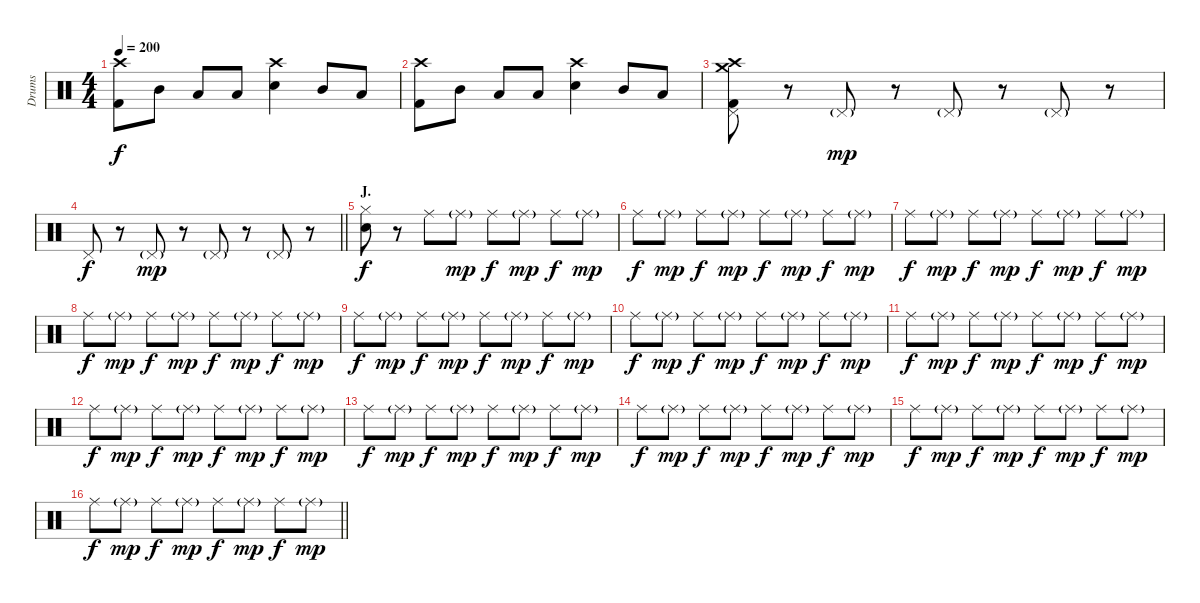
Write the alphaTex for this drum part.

\track ("Drums" "Drums") {instrument percussion}
\staff {score}
\articulation defaults
\ts (4 4)
\tempo 200
\clef neutral
\ks c
("Crash high (hit)" "Kick (hit) 2").8{dy f} "Mid Tom (hit)".8 "Low Tom (hit)".8 "Low Floor Tom (hit)".8 ("Crash high (hit)" "Electric Snare (hit)").4 "Mid Tom (hit)".8 "Low Tom (hit)".8 |
("Crash high (hit)" "Kick (hit) 2").8 "Mid Tom (hit)".8 "Low Tom (hit)".8 "Low Floor Tom (hit)".8 ("Crash high (hit)" "Electric Snare (hit)").4 "Mid Tom (hit)".8 "Low Tom (hit)".8 |
("Crash medium (hit)" "Crash high (hit)" "Pedal Hi-Hat (hit)" "Kick (hit) 2").8 r.8 "Pedal Hi-Hat (hit)"{g}.8{dy mp} r.8 "Pedal Hi-Hat (hit)"{g}.8 r.8 "Pedal Hi-Hat (hit)"{g}.8 r.8 |
\barLineRight lightlight "Pedal Hi-Hat (hit)".8{dy f}
r.8 "Pedal Hi-Hat (hit)"{g}.8{dy mp} r.8 "Pedal Hi-Hat (hit)"{g}.8 r.8 "Pedal Hi-Hat (hit)"{g}.8 r.8 |
\section ("" "J.")
("Hi-Hat (closed)" "Electric Snare (hit)").8{dy f} r.8 "Ride (middle)".8 "Ride (middle)"{g}.8{dy mp} "Ride (middle)".8{dy f} "Ride (middle)"{g}.8{dy mp} "Ride (middle)".8{dy f} "Ride (middle)"{g}.8{dy mp} |
"Ride (middle)".8{dy f} "Ride (middle)"{g}.8{dy mp} "Ride (middle)".8{dy f} "Ride (middle)"{g}.8{dy mp} "Ride (middle)".8{dy f} "Ride (middle)"{g}.8{dy mp} "Ride (middle)".8{dy f} "Ride (middle)"{g}.8{dy mp} |
"Ride (middle)".8{dy f} "Ride (middle)"{g}.8{dy mp} "Ride (middle)".8{dy f} "Ride (middle)"{g}.8{dy mp} "Ride (middle)".8{dy f} "Ride (middle)"{g}.8{dy mp} "Ride (middle)".8{dy f} "Ride (middle)"{g}.8{dy mp} |
"Ride (middle)".8{dy f} "Ride (middle)"{g}.8{dy mp} "Ride (middle)".8{dy f} "Ride (middle)"{g}.8{dy mp} "Ride (middle)".8{dy f} "Ride (middle)"{g}.8{dy mp} "Ride (middle)".8{dy f} "Ride (middle)"{g}.8{dy mp} |
"Ride (middle)".8{dy f} "Ride (middle)"{g}.8{dy mp} "Ride (middle)".8{dy f} "Ride (middle)"{g}.8{dy mp} "Ride (middle)".8{dy f} "Ride (middle)"{g}.8{dy mp} "Ride (middle)".8{dy f} "Ride (middle)"{g}.8{dy mp} |
"Ride (middle)".8{dy f} "Ride (middle)"{g}.8{dy mp} "Ride (middle)".8{dy f} "Ride (middle)"{g}.8{dy mp} "Ride (middle)".8{dy f} "Ride (middle)"{g}.8{dy mp} "Ride (middle)".8{dy f} "Ride (middle)"{g}.8{dy mp} |
"Ride (middle)".8{dy f} "Ride (middle)"{g}.8{dy mp} "Ride (middle)".8{dy f} "Ride (middle)"{g}.8{dy mp} "Ride (middle)".8{dy f} "Ride (middle)"{g}.8{dy mp} "Ride (middle)".8{dy f} "Ride (middle)"{g}.8{dy mp} |
"Ride (middle)".8{dy f} "Ride (middle)"{g}.8{dy mp} "Ride (middle)".8{dy f} "Ride (middle)"{g}.8{dy mp} "Ride (middle)".8{dy f} "Ride (middle)"{g}.8{dy mp} "Ride (middle)".8{dy f} "Ride (middle)"{g}.8{dy mp} |
"Ride (middle)".8{dy f} "Ride (middle)"{g}.8{dy mp} "Ride (middle)".8{dy f} "Ride (middle)"{g}.8{dy mp} "Ride (middle)".8{dy f} "Ride (middle)"{g}.8{dy mp} "Ride (middle)".8{dy f} "Ride (middle)"{g}.8{dy mp} |
"Ride (middle)".8{dy f} "Ride (middle)"{g}.8{dy mp} "Ride (middle)".8{dy f} "Ride (middle)"{g}.8{dy mp} "Ride (middle)".8{dy f} "Ride (middle)"{g}.8{dy mp} "Ride (middle)".8{dy f} "Ride (middle)"{g}.8{dy mp} |
"Ride (middle)".8{dy f} "Ride (middle)"{g}.8{dy mp} "Ride (middle)".8{dy f} "Ride (middle)"{g}.8{dy mp} "Ride (middle)".8{dy f} "Ride (middle)"{g}.8{dy mp} "Ride (middle)".8{dy f} "Ride (middle)"{g}.8{dy mp} |
\barLineRight lightlight "Ride (middle)".8{dy f} "Ride (middle)"{g}.8{dy mp} "Ride (middle)".8{dy f} "Ride (middle)"{g}.8{dy mp} "Ride (middle)".8{dy f} "Ride (middle)"{g}.8{dy mp} "Ride (middle)".8{dy f} "Ride (middle)"{g}.8{dy mp}
